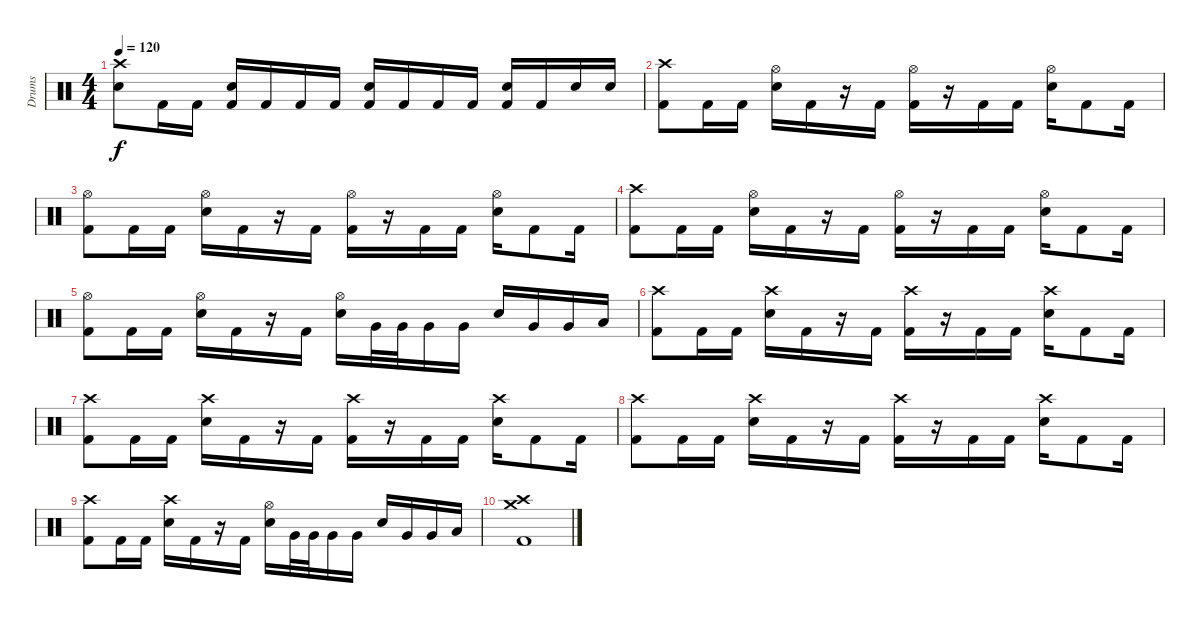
\track ("Drums" "Drums") {instrument percussion}
\staff {score}
\articulation defaults
\ts (4 4)
\tempo 120
\clef neutral
\ks c
("Crash high (hit)" "Electric Snare (hit)").8{dy f} "Kick (hit) 2".16 "Kick (hit) 2".16 ("Electric Snare (hit)" "Kick (hit) 2").16 "Kick (hit) 2".16 "Kick (hit) 2".16 "Kick (hit) 2".16 ("Electric Snare (hit)" "Kick (hit) 2").16 "Kick (hit) 2".16 "Kick (hit) 2".16 "Kick (hit) 2".16 ("Electric Snare (hit)" "Kick (hit) 2").16 "Kick (hit) 2".16 "Electric Snare (hit)".16 "Electric Snare (hit)".16 |
("Crash high (hit)" "Kick (hit) 2").8 "Kick (hit) 2".16 "Kick (hit) 2".16 ("Hi-Hat (open)" "Electric Snare (hit)").16 "Kick (hit) 2".16 r.16 "Kick (hit) 2".16 ("Hi-Hat (open)" "Kick (hit) 2").16 r.16 "Kick (hit) 2".16 "Kick (hit) 2".16 ("Hi-Hat (open)" "Electric Snare (hit)").16 "Kick (hit) 2".8 "Kick (hit) 2".16 |
("Hi-Hat (open)" "Kick (hit) 2").8 "Kick (hit) 2".16 "Kick (hit) 2".16 ("Hi-Hat (open)" "Electric Snare (hit)").16 "Kick (hit) 2".16 r.16 "Kick (hit) 2".16 ("Hi-Hat (open)" "Kick (hit) 2").16 r.16 "Kick (hit) 2".16 "Kick (hit) 2".16 ("Hi-Hat (open)" "Electric Snare (hit)").16 "Kick (hit) 2".8 "Kick (hit) 2".16 |
("Crash high (hit)" "Kick (hit) 2").8 "Kick (hit) 2".16 "Kick (hit) 2".16 ("Hi-Hat (open)" "Electric Snare (hit)").16 "Kick (hit) 2".16 r.16 "Kick (hit) 2".16 ("Hi-Hat (open)" "Kick (hit) 2").16 r.16 "Kick (hit) 2".16 "Kick (hit) 2".16 ("Hi-Hat (open)" "Electric Snare (hit)").16 "Kick (hit) 2".8 "Kick (hit) 2".16 |
("Hi-Hat (open)" "Kick (hit) 2").8 "Kick (hit) 2".16 "Kick (hit) 2".16 ("Hi-Hat (open)" "Electric Snare (hit)").16 "Kick (hit) 2".16 r.16 "Kick (hit) 2".16 ("Hi-Hat (open)" "Electric Snare (hit)").16 "Very Low Tom (hit)".32 "Very Low Tom (hit)".32 "Very Low Tom (hit)".16 "Very Low Tom (hit)".16 "Electric Snare (hit)".16 "Very Low Tom (hit)".16 "Very Low Tom (hit)".16 "Low Floor Tom (hit)".16 |
("Crash high (hit)" "Kick (hit) 2").8 "Kick (hit) 2".16 "Kick (hit) 2".16 ("Crash high (hit)" "Electric Snare (hit)").16 "Kick (hit) 2".16 r.16 "Kick (hit) 2".16 ("Crash high (hit)" "Kick (hit) 2").16 r.16 "Kick (hit) 2".16 "Kick (hit) 2".16 ("Crash high (hit)" "Electric Snare (hit)").16 "Kick (hit) 2".8 "Kick (hit) 2".16 |
("Crash high (hit)" "Kick (hit) 2").8 "Kick (hit) 2".16 "Kick (hit) 2".16 ("Crash high (hit)" "Electric Snare (hit)").16 "Kick (hit) 2".16 r.16 "Kick (hit) 2".16 ("Crash high (hit)" "Kick (hit) 2").16 r.16 "Kick (hit) 2".16 "Kick (hit) 2".16 ("Crash high (hit)" "Electric Snare (hit)").16 "Kick (hit) 2".8 "Kick (hit) 2".16 |
("Crash high (hit)" "Kick (hit) 2").8 "Kick (hit) 2".16 "Kick (hit) 2".16 ("Crash high (hit)" "Electric Snare (hit)").16 "Kick (hit) 2".16 r.16 "Kick (hit) 2".16 ("Crash high (hit)" "Kick (hit) 2").16 r.16 "Kick (hit) 2".16 "Kick (hit) 2".16 ("Crash high (hit)" "Electric Snare (hit)").16 "Kick (hit) 2".8 "Kick (hit) 2".16 |
("Crash high (hit)" "Kick (hit) 2").8 "Kick (hit) 2".16 "Kick (hit) 2".16 ("Crash high (hit)" "Electric Snare (hit)").16 "Kick (hit) 2".16 r.16 "Kick (hit) 2".16 ("Hi-Hat (open)" "Electric Snare (hit)").16 "Very Low Tom (hit)".32 "Very Low Tom (hit)".32 "Very Low Tom (hit)".16 "Very Low Tom (hit)".16 "Electric Snare (hit)".16 "Very Low Tom (hit)".16 "Very Low Tom (hit)".16 "Low Floor Tom (hit)".16 |
("Crash medium (hit)" "Crash high (hit)" "Kick (hit) 2").1
